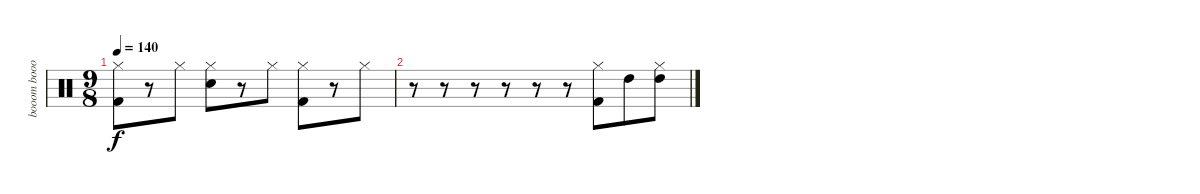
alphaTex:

\track ("booom boooom boooom" "booom booo") {instrument percussion}
\staff {score}
\articulation defaults
\ts (9 8)
\tempo 140
\clef neutral
\ks c
("Hi-Hat (closed)" "Kick (hit) 2").8{dy f} r.8 "Hi-Hat (closed)".8 ("Hi-Hat (closed)" "Snare (hit) 2").8 r.8 "Hi-Hat (closed)".8 ("Hi-Hat (closed)" "Kick (hit) 2").8 r.8 "Hi-Hat (closed)".8 |
r.8 r.8 r.8 r.8 r.8 r.8 ("Hi-Hat (closed)" "Kick (hit) 2").8 "High Tom (hit)".8 ("Hi-Hat (closed)" "High Tom (hit)").8
